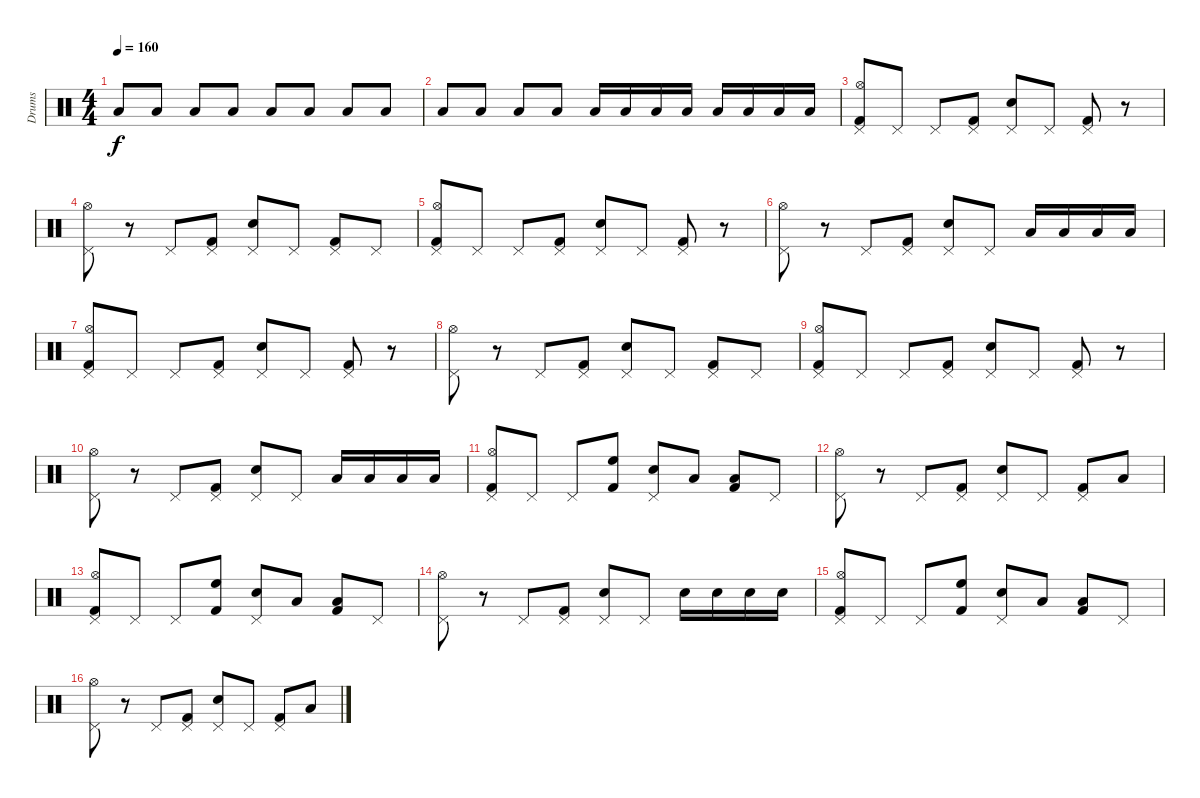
\track ("Drums" "Drums") {instrument percussion}
\staff {score}
\articulation defaults
\ts (4 4)
\tempo 160
\clef neutral
\ks c "Low Tom (hit)".8{dy f volume 11} "Low Tom (hit)".8 "Low Tom (hit)".8 "Low Tom (hit)".8 "Low Tom (hit)".8 "Low Tom (hit)".8 "Low Tom (hit)".8 "Low Tom (hit)".8
|
"Low Tom (hit)".8 "Low Tom (hit)".8 "Low Tom (hit)".8 "Low Tom (hit)".8 "Low Tom (hit)".16 "Low Tom (hit)".16 "Low Tom (hit)".16 "Low Tom (hit)".16 "Low Tom (hit)".16 "Low Tom (hit)".16 "Low Tom (hit)".16 "Low Tom (hit)".16 |
("Pedal Hi-Hat (hit)" "Hi-Hat (open)" "Kick (hit) 2").8 "Pedal Hi-Hat (hit)".8 "Pedal Hi-Hat (hit)".8 ("Pedal Hi-Hat (hit)" "Kick (hit) 2").8 ("Pedal Hi-Hat (hit)" "Electric Snare (hit)").8 "Pedal Hi-Hat (hit)".8 ("Pedal Hi-Hat (hit)" "Kick (hit) 2").8 r.8 |
("Pedal Hi-Hat (hit)" "Hi-Hat (open)").8 r.8 "Pedal Hi-Hat (hit)".8 ("Pedal Hi-Hat (hit)" "Kick (hit) 2").8 ("Pedal Hi-Hat (hit)" "Electric Snare (hit)").8 "Pedal Hi-Hat (hit)".8 ("Pedal Hi-Hat (hit)" "Kick (hit) 2").8 "Pedal Hi-Hat (hit)".8 |
("Pedal Hi-Hat (hit)" "Hi-Hat (open)" "Kick (hit) 2").8 "Pedal Hi-Hat (hit)".8 "Pedal Hi-Hat (hit)".8 ("Pedal Hi-Hat (hit)" "Kick (hit) 2").8 ("Pedal Hi-Hat (hit)" "Electric Snare (hit)").8 "Pedal Hi-Hat (hit)".8 ("Pedal Hi-Hat (hit)" "Kick (hit) 2").8 r.8 |
("Pedal Hi-Hat (hit)" "Hi-Hat (open)").8 r.8 "Pedal Hi-Hat (hit)".8 ("Pedal Hi-Hat (hit)" "Kick (hit) 2").8 ("Pedal Hi-Hat (hit)" "Electric Snare (hit)").8 "Pedal Hi-Hat (hit)".8 "Low Tom (hit)".16 "Low Tom (hit)".16 "Low Tom (hit)".16 "Low Tom (hit)".16 |
("Pedal Hi-Hat (hit)" "Hi-Hat (open)" "Kick (hit) 2").8 "Pedal Hi-Hat (hit)".8 "Pedal Hi-Hat (hit)".8 ("Pedal Hi-Hat (hit)" "Kick (hit) 2").8 ("Pedal Hi-Hat (hit)" "Electric Snare (hit)").8 "Pedal Hi-Hat (hit)".8 ("Pedal Hi-Hat (hit)" "Kick (hit) 2").8 r.8 |
("Pedal Hi-Hat (hit)" "Hi-Hat (open)").8 r.8 "Pedal Hi-Hat (hit)".8 ("Pedal Hi-Hat (hit)" "Kick (hit) 2").8 ("Pedal Hi-Hat (hit)" "Electric Snare (hit)").8 "Pedal Hi-Hat (hit)".8 ("Pedal Hi-Hat (hit)" "Kick (hit) 2").8 "Pedal Hi-Hat (hit)".8 |
("Pedal Hi-Hat (hit)" "Hi-Hat (open)" "Kick (hit) 2").8 "Pedal Hi-Hat (hit)".8 "Pedal Hi-Hat (hit)".8 ("Pedal Hi-Hat (hit)" "Kick (hit) 2").8 ("Pedal Hi-Hat (hit)" "Electric Snare (hit)").8 "Pedal Hi-Hat (hit)".8 ("Pedal Hi-Hat (hit)" "Kick (hit) 2").8 r.8 |
("Pedal Hi-Hat (hit)" "Hi-Hat (open)").8 r.8 "Pedal Hi-Hat (hit)".8 ("Pedal Hi-Hat (hit)" "Kick (hit) 2").8 ("Pedal Hi-Hat (hit)" "Electric Snare (hit)").8 "Pedal Hi-Hat (hit)".8 "Low Tom (hit)".16 "Low Tom (hit)".16 "Low Tom (hit)".16 "Low Tom (hit)".16 |
("Pedal Hi-Hat (hit)" "Hi-Hat (open)" "Kick (hit) 2").8 "Pedal Hi-Hat (hit)".8 "Pedal Hi-Hat (hit)".8 ("High Floor Tom (hit)" "Kick (hit) 2").8 ("Pedal Hi-Hat (hit)" "Electric Snare (hit)").8 "Low Tom (hit)".8 ("Low Tom (hit)" "Kick (hit) 2").8 "Pedal Hi-Hat (hit)".8 |
("Pedal Hi-Hat (hit)" "Hi-Hat (open)").8 r.8 "Pedal Hi-Hat (hit)".8 ("Pedal Hi-Hat (hit)" "Kick (hit) 2").8 ("Pedal Hi-Hat (hit)" "Electric Snare (hit)").8 "Pedal Hi-Hat (hit)".8 ("Pedal Hi-Hat (hit)" "Kick (hit) 2").8 "Low Tom (hit)".8 |
("Pedal Hi-Hat (hit)" "Hi-Hat (open)" "Kick (hit) 2").8 "Pedal Hi-Hat (hit)".8 "Pedal Hi-Hat (hit)".8 ("High Floor Tom (hit)" "Kick (hit) 2").8 ("Pedal Hi-Hat (hit)" "Electric Snare (hit)").8 "Low Tom (hit)".8 ("Low Tom (hit)" "Kick (hit) 2").8 "Pedal Hi-Hat (hit)".8 |
("Pedal Hi-Hat (hit)" "Hi-Hat (open)").8 r.8 "Pedal Hi-Hat (hit)".8 ("Pedal Hi-Hat (hit)" "Kick (hit) 2").8 ("Pedal Hi-Hat (hit)" "Electric Snare (hit)").8 "Pedal Hi-Hat (hit)".8 "Electric Snare (hit)".16 "Electric Snare (hit)".16 "Electric Snare (hit)".16 "Electric Snare (hit)".16 |
("Pedal Hi-Hat (hit)" "Hi-Hat (open)" "Kick (hit) 2").8 "Pedal Hi-Hat (hit)".8 "Pedal Hi-Hat (hit)".8 ("High Floor Tom (hit)" "Kick (hit) 2").8 ("Pedal Hi-Hat (hit)" "Electric Snare (hit)").8 "Low Tom (hit)".8 ("Low Tom (hit)" "Kick (hit) 2").8 "Pedal Hi-Hat (hit)".8 |
("Pedal Hi-Hat (hit)" "Hi-Hat (open)").8 r.8 "Pedal Hi-Hat (hit)".8 ("Pedal Hi-Hat (hit)" "Kick (hit) 2").8 ("Pedal Hi-Hat (hit)" "Electric Snare (hit)").8 "Pedal Hi-Hat (hit)".8 ("Pedal Hi-Hat (hit)" "Kick (hit) 2").8 "Low Tom (hit)".8
